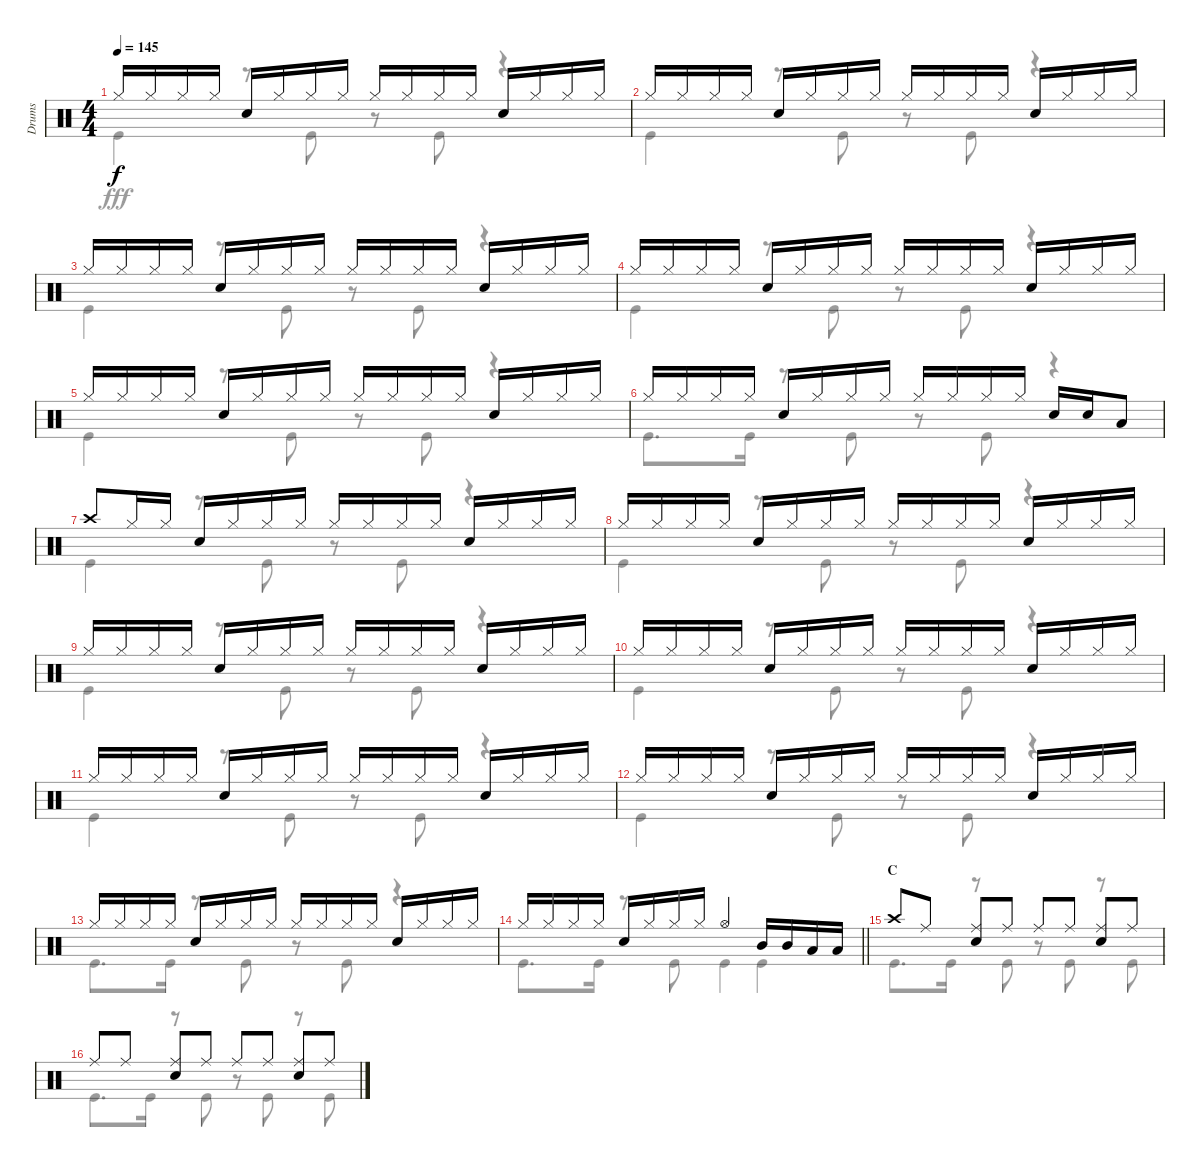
\track ("Drums" "Drums") {instrument percussion}
\staff {score}
\articulation defaults
\voice
\ts (4 4)
\tempo 145
\clef neutral
\ks c "Hi-Hat (closed)".16{dy f} "Hi-Hat (closed)".16 "Hi-Hat (closed)".16 "Hi-Hat (closed)".16 "Snare (hit) 2".16 "Hi-Hat (closed)".16 "Hi-Hat (closed)".16 "Hi-Hat (closed)".16 "Hi-Hat (closed)".16 "Hi-Hat (closed)".16 "Hi-Hat (closed)".16 "Hi-Hat (closed)".16 "Snare (hit) 2".16 "Hi-Hat (closed)".16 "Hi-Hat (closed)".16 "Hi-Hat (closed)".16
|
"Hi-Hat (closed)".16 "Hi-Hat (closed)".16 "Hi-Hat (closed)".16 "Hi-Hat (closed)".16 "Snare (hit) 2".16 "Hi-Hat (closed)".16 "Hi-Hat (closed)".16 "Hi-Hat (closed)".16 "Hi-Hat (closed)".16 "Hi-Hat (closed)".16 "Hi-Hat (closed)".16 "Hi-Hat (closed)".16 "Snare (hit) 2".16 "Hi-Hat (closed)".16 "Hi-Hat (closed)".16 "Hi-Hat (closed)".16 |
"Hi-Hat (closed)".16 "Hi-Hat (closed)".16 "Hi-Hat (closed)".16 "Hi-Hat (closed)".16 "Snare (hit) 2".16 "Hi-Hat (closed)".16 "Hi-Hat (closed)".16 "Hi-Hat (closed)".16 "Hi-Hat (closed)".16 "Hi-Hat (closed)".16 "Hi-Hat (closed)".16 "Hi-Hat (closed)".16 "Snare (hit) 2".16 "Hi-Hat (closed)".16 "Hi-Hat (closed)".16 "Hi-Hat (closed)".16 |
"Hi-Hat (closed)".16 "Hi-Hat (closed)".16 "Hi-Hat (closed)".16 "Hi-Hat (closed)".16 "Snare (hit) 2".16 "Hi-Hat (closed)".16 "Hi-Hat (closed)".16 "Hi-Hat (closed)".16 "Hi-Hat (closed)".16 "Hi-Hat (closed)".16 "Hi-Hat (closed)".16 "Hi-Hat (closed)".16 "Snare (hit) 2".16 "Hi-Hat (closed)".16 "Hi-Hat (closed)".16 "Hi-Hat (closed)".16 |
"Hi-Hat (closed)".16 "Hi-Hat (closed)".16 "Hi-Hat (closed)".16 "Hi-Hat (closed)".16 "Snare (hit) 2".16 "Hi-Hat (closed)".16 "Hi-Hat (closed)".16 "Hi-Hat (closed)".16 "Hi-Hat (closed)".16 "Hi-Hat (closed)".16 "Hi-Hat (closed)".16 "Hi-Hat (closed)".16 "Snare (hit) 2".16 "Hi-Hat (closed)".16 "Hi-Hat (closed)".16 "Hi-Hat (closed)".16 |
"Hi-Hat (closed)".16 "Hi-Hat (closed)".16 "Hi-Hat (closed)".16 "Hi-Hat (closed)".16 "Snare (hit) 2".16 "Hi-Hat (closed)".16 "Hi-Hat (closed)".16 "Hi-Hat (closed)".16 "Hi-Hat (closed)".16 "Hi-Hat (closed)".16 "Hi-Hat (closed)".16 "Hi-Hat (closed)".16 "Snare (hit) 2".16 "Snare (hit) 2".16 "Low Tom (hit)".8 |
"Crash high (hit)".8 "Hi-Hat (closed)".16 "Hi-Hat (closed)".16 "Snare (hit) 2".16 "Hi-Hat (closed)".16 "Hi-Hat (closed)".16 "Hi-Hat (closed)".16 "Hi-Hat (closed)".16 "Hi-Hat (closed)".16 "Hi-Hat (closed)".16 "Hi-Hat (closed)".16 "Snare (hit) 2".16 "Hi-Hat (closed)".16 "Hi-Hat (closed)".16 "Hi-Hat (closed)".16 |
"Hi-Hat (closed)".16 "Hi-Hat (closed)".16 "Hi-Hat (closed)".16 "Hi-Hat (closed)".16 "Snare (hit) 2".16 "Hi-Hat (closed)".16 "Hi-Hat (closed)".16 "Hi-Hat (closed)".16 "Hi-Hat (closed)".16 "Hi-Hat (closed)".16 "Hi-Hat (closed)".16 "Hi-Hat (closed)".16 "Snare (hit) 2".16 "Hi-Hat (closed)".16 "Hi-Hat (closed)".16 "Hi-Hat (closed)".16 |
"Hi-Hat (closed)".16 "Hi-Hat (closed)".16 "Hi-Hat (closed)".16 "Hi-Hat (closed)".16 "Snare (hit) 2".16 "Hi-Hat (closed)".16 "Hi-Hat (closed)".16 "Hi-Hat (closed)".16 "Hi-Hat (closed)".16 "Hi-Hat (closed)".16 "Hi-Hat (closed)".16 "Hi-Hat (closed)".16 "Snare (hit) 2".16 "Hi-Hat (closed)".16 "Hi-Hat (closed)".16 "Hi-Hat (closed)".16 |
"Hi-Hat (closed)".16 "Hi-Hat (closed)".16 "Hi-Hat (closed)".16 "Hi-Hat (closed)".16 "Snare (hit) 2".16 "Hi-Hat (closed)".16 "Hi-Hat (closed)".16 "Hi-Hat (closed)".16 "Hi-Hat (closed)".16 "Hi-Hat (closed)".16 "Hi-Hat (closed)".16 "Hi-Hat (closed)".16 "Snare (hit) 2".16 "Hi-Hat (closed)".16 "Hi-Hat (closed)".16 "Hi-Hat (closed)".16 |
"Hi-Hat (closed)".16 "Hi-Hat (closed)".16 "Hi-Hat (closed)".16 "Hi-Hat (closed)".16 "Snare (hit) 2".16 "Hi-Hat (closed)".16 "Hi-Hat (closed)".16 "Hi-Hat (closed)".16 "Hi-Hat (closed)".16 "Hi-Hat (closed)".16 "Hi-Hat (closed)".16 "Hi-Hat (closed)".16 "Snare (hit) 2".16 "Hi-Hat (closed)".16 "Hi-Hat (closed)".16 "Hi-Hat (closed)".16 |
"Hi-Hat (closed)".16 "Hi-Hat (closed)".16 "Hi-Hat (closed)".16 "Hi-Hat (closed)".16 "Snare (hit) 2".16 "Hi-Hat (closed)".16 "Hi-Hat (closed)".16 "Hi-Hat (closed)".16 "Hi-Hat (closed)".16 "Hi-Hat (closed)".16 "Hi-Hat (closed)".16 "Hi-Hat (closed)".16 "Snare (hit) 2".16 "Hi-Hat (closed)".16 "Hi-Hat (closed)".16 "Hi-Hat (closed)".16 |
"Hi-Hat (closed)".16 "Hi-Hat (closed)".16 "Hi-Hat (closed)".16 "Hi-Hat (closed)".16 "Snare (hit) 2".16 "Hi-Hat (closed)".16 "Hi-Hat (closed)".16 "Hi-Hat (closed)".16 "Hi-Hat (closed)".16 "Hi-Hat (closed)".16 "Hi-Hat (closed)".16 "Hi-Hat (closed)".16 "Snare (hit) 2".16 "Hi-Hat (closed)".16 "Hi-Hat (closed)".16 "Hi-Hat (closed)".16 |
\barLineRight lightlight "Hi-Hat (closed)".16 "Hi-Hat (closed)".16 "Hi-Hat (closed)".16 "Hi-Hat (closed)".16 "Snare (hit) 2".16 "Hi-Hat (closed)".16 "Hi-Hat (closed)".16 "Hi-Hat (closed)".16 "Hi-Hat (open)".4 "Mid Tom (hit)".16 "Mid Tom (hit)".16 "Low Tom (hit)".16 "Low Tom (hit)".16
|
\section ("" "C")
"Crash high (hit)".8 "Ride (middle)".8 ("Ride (middle)" "Snare (hit) 2").8 "Ride (middle)".8 "Ride (middle)".8 "Ride (middle)".8 ("Ride (middle)" "Snare (hit) 2").8 "Ride (middle)".8 |
"Ride (middle)".8 "Ride (middle)".8 ("Ride (middle)" "Snare (hit) 2").8 "Ride (middle)".8 "Ride (middle)".8 "Ride (middle)".8 ("Ride (middle)" "Snare (hit) 2").8 "Ride (middle)".8
\voice
\clef neutral
\ottava regular
\simile none
\ks c "Kick (hit)".4{dy fff}
r.8 "Kick (hit)".8 r.8 "Kick (hit)".8 r.4 |
"Kick (hit)".4 r.8 "Kick (hit)".8 r.8 "Kick (hit)".8 r.4 |
"Kick (hit)".4 r.8 "Kick (hit)".8 r.8 "Kick (hit)".8 r.4 |
"Kick (hit)".4 r.8 "Kick (hit)".8 r.8 "Kick (hit)".8 r.4 |
"Kick (hit)".4 r.8 "Kick (hit)".8 r.8 "Kick (hit)".8 r.4 |
"Kick (hit)".8{d} "Kick (hit)".16 r.8 "Kick (hit)".8 r.8 "Kick (hit)".8 r.4 |
"Kick (hit)".4 r.8 "Kick (hit)".8 r.8 "Kick (hit)".8 r.4 |
"Kick (hit)".4 r.8 "Kick (hit)".8 r.8 "Kick (hit)".8 r.4 |
"Kick (hit)".4 r.8 "Kick (hit)".8 r.8 "Kick (hit)".8 r.4 |
"Kick (hit)".4 r.8 "Kick (hit)".8 r.8 "Kick (hit)".8 r.4 |
"Kick (hit)".4 r.8 "Kick (hit)".8 r.8 "Kick (hit)".8 r.4 |
"Kick (hit)".4 r.8 "Kick (hit)".8 r.8 "Kick (hit)".8 r.4 |
"Kick (hit)".8{d} "Kick (hit)".16 r.8 "Kick (hit)".8 r.8 "Kick (hit)".8 r.4 |
\barLineRight lightlight "Kick (hit)".8{d} "Kick (hit)".16
r.8 "Kick (hit)".8 "Kick (hit)".4 "Kick (hit)".4 |
"Kick (hit)".8{d} "Kick (hit)".16 r.8 "Kick (hit)".8 r.8 "Kick (hit)".8 r.8 "Kick (hit)".8 |
"Kick (hit)".8{d} "Kick (hit)".16 r.8 "Kick (hit)".8 r.8 "Kick (hit)".8 r.8 "Kick (hit)".8
